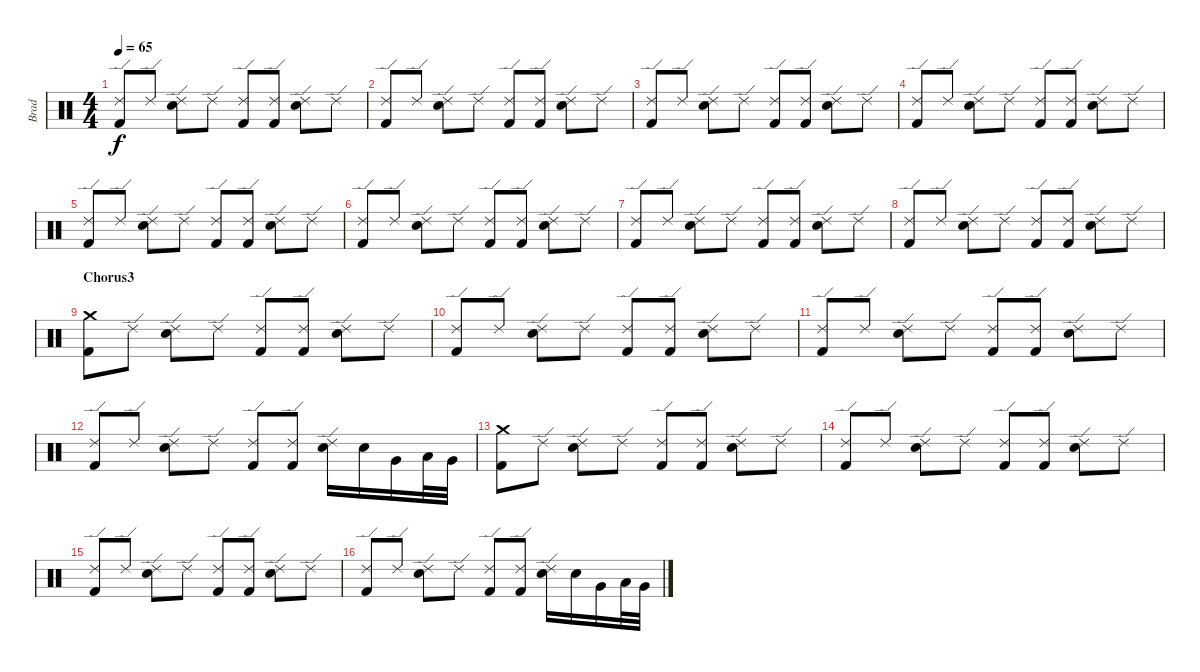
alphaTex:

\track ("Brad" "Brad") {instrument percussion}
\staff {score}
\articulation defaults
\ts (4 4)
\tempo 65
\clef neutral
\ks c
("Ride (edge) 2" "Kick (hit) 2").8{dy f} "Ride (edge) 2".8 ("Ride (edge) 2" "Electric Snare (hit)").8 "Ride (edge) 2".8 ("Ride (edge) 2" "Kick (hit) 2").8 ("Ride (edge) 2" "Kick (hit) 2").8 ("Ride (edge) 2" "Electric Snare (hit)").8 "Ride (edge) 2".8 |
("Ride (edge) 2" "Kick (hit) 2").8 "Ride (edge) 2".8 ("Ride (edge) 2" "Electric Snare (hit)").8 "Ride (edge) 2".8 ("Ride (edge) 2" "Kick (hit) 2").8 ("Ride (edge) 2" "Kick (hit) 2").8 ("Ride (edge) 2" "Electric Snare (hit)").8 "Ride (edge) 2".8 |
("Ride (edge) 2" "Kick (hit) 2").8 "Ride (edge) 2".8 ("Ride (edge) 2" "Electric Snare (hit)").8 "Ride (edge) 2".8 ("Ride (edge) 2" "Kick (hit) 2").8 ("Ride (edge) 2" "Kick (hit) 2").8 ("Ride (edge) 2" "Electric Snare (hit)").8 "Ride (edge) 2".8 |
("Ride (edge) 2" "Kick (hit) 2").8 "Ride (edge) 2".8 ("Ride (edge) 2" "Electric Snare (hit)").8 "Ride (edge) 2".8 ("Ride (edge) 2" "Kick (hit) 2").8 ("Ride (edge) 2" "Kick (hit) 2").8 ("Ride (edge) 2" "Electric Snare (hit)").8 "Ride (edge) 2".8 |
("Ride (edge) 2" "Kick (hit) 2").8 "Ride (edge) 2".8 ("Ride (edge) 2" "Electric Snare (hit)").8 "Ride (edge) 2".8 ("Ride (edge) 2" "Kick (hit) 2").8 ("Ride (edge) 2" "Kick (hit) 2").8 ("Ride (edge) 2" "Electric Snare (hit)").8 "Ride (edge) 2".8 |
("Ride (edge) 2" "Kick (hit) 2").8 "Ride (edge) 2".8 ("Ride (edge) 2" "Electric Snare (hit)").8 "Ride (edge) 2".8 ("Ride (edge) 2" "Kick (hit) 2").8 ("Ride (edge) 2" "Kick (hit) 2").8 ("Ride (edge) 2" "Electric Snare (hit)").8 "Ride (edge) 2".8 |
("Ride (edge) 2" "Kick (hit) 2").8 "Ride (edge) 2".8 ("Ride (edge) 2" "Electric Snare (hit)").8 "Ride (edge) 2".8 ("Ride (edge) 2" "Kick (hit) 2").8 ("Ride (edge) 2" "Kick (hit) 2").8 ("Ride (edge) 2" "Electric Snare (hit)").8 "Ride (edge) 2".8 |
("Ride (edge) 2" "Kick (hit) 2").8 "Ride (edge) 2".8 ("Ride (edge) 2" "Electric Snare (hit)").8 "Ride (edge) 2".8 ("Ride (edge) 2" "Kick (hit) 2").8 ("Ride (edge) 2" "Kick (hit) 2").8 ("Ride (edge) 2" "Electric Snare (hit)").8 "Ride (edge) 2".8 |
\section ("" "Chorus3")
("Crash medium (hit)" "Kick (hit) 2").8 "Ride (edge) 2".8 ("Ride (edge) 2" "Electric Snare (hit)").8 "Ride (edge) 2".8 ("Ride (edge) 2" "Kick (hit) 2").8 ("Ride (edge) 2" "Kick (hit) 2").8 ("Ride (edge) 2" "Electric Snare (hit)").8 "Ride (edge) 2".8 |
("Ride (edge) 2" "Kick (hit) 2").8 "Ride (edge) 2".8 ("Ride (edge) 2" "Electric Snare (hit)").8 "Ride (edge) 2".8 ("Ride (edge) 2" "Kick (hit) 2").8 ("Ride (edge) 2" "Kick (hit) 2").8 ("Ride (edge) 2" "Electric Snare (hit)").8 "Ride (edge) 2".8 |
("Ride (edge) 2" "Kick (hit) 2").8 "Ride (edge) 2".8 ("Ride (edge) 2" "Electric Snare (hit)").8 "Ride (edge) 2".8 ("Ride (edge) 2" "Kick (hit) 2").8 ("Ride (edge) 2" "Kick (hit) 2").8 ("Ride (edge) 2" "Electric Snare (hit)").8 "Ride (edge) 2".8 |
("Ride (edge) 2" "Kick (hit) 2").8 "Ride (edge) 2".8 ("Ride (edge) 2" "Electric Snare (hit)").8 "Ride (edge) 2".8 ("Ride (edge) 2" "Kick (hit) 2").8 ("Ride (edge) 2" "Kick (hit) 2").8 ("Ride (edge) 2" "Electric Snare (hit)").16 "Electric Snare (hit)".16 "Very Low Tom (hit)".16 "Low Floor Tom (hit)".32 "Very Low Tom (hit)".32 |
("Crash medium (hit)" "Kick (hit) 2").8 "Ride (edge) 2".8 ("Ride (edge) 2" "Electric Snare (hit)").8 "Ride (edge) 2".8 ("Ride (edge) 2" "Kick (hit) 2").8 ("Ride (edge) 2" "Kick (hit) 2").8 ("Ride (edge) 2" "Electric Snare (hit)").8 "Ride (edge) 2".8 |
("Ride (edge) 2" "Kick (hit) 2").8 "Ride (edge) 2".8 ("Ride (edge) 2" "Electric Snare (hit)").8 "Ride (edge) 2".8 ("Ride (edge) 2" "Kick (hit) 2").8 ("Ride (edge) 2" "Kick (hit) 2").8 ("Ride (edge) 2" "Electric Snare (hit)").8 "Ride (edge) 2".8 |
("Ride (edge) 2" "Kick (hit) 2").8 "Ride (edge) 2".8 ("Ride (edge) 2" "Electric Snare (hit)").8 "Ride (edge) 2".8 ("Ride (edge) 2" "Kick (hit) 2").8 ("Ride (edge) 2" "Kick (hit) 2").8 ("Ride (edge) 2" "Electric Snare (hit)").8 "Ride (edge) 2".8 |
("Ride (edge) 2" "Kick (hit) 2").8 "Ride (edge) 2".8 ("Ride (edge) 2" "Electric Snare (hit)").8 "Ride (edge) 2".8 ("Ride (edge) 2" "Kick (hit) 2").8 ("Ride (edge) 2" "Kick (hit) 2").8 ("Ride (edge) 2" "Electric Snare (hit)").16 "Electric Snare (hit)".16 "Very Low Tom (hit)".16 "Low Floor Tom (hit)".32 "Very Low Tom (hit)".32
